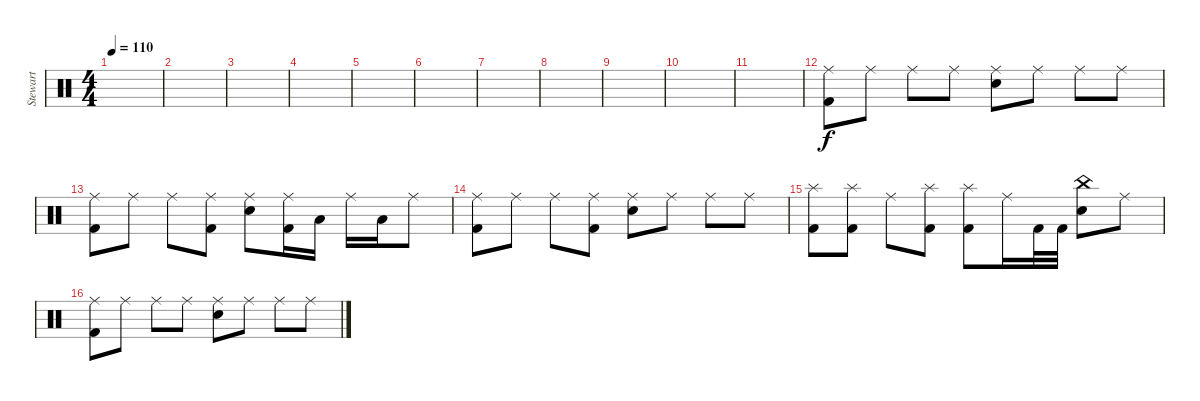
\track ("Stewart" "Stewart") {instrument percussion}
\staff {score}
\articulation defaults
\ts (4 4)
\tempo 110
\clef neutral
\ks c
|
|
|
|
|
|
|
|
|
|
|
("Ride (middle)" "Kick (hit) 2").8 "Ride (middle)".8 "Ride (middle)".8 "Ride (middle)".8 ("Ride (middle)" "Electric Snare (hit)").8 "Ride (middle)".8 "Ride (middle)".8 "Ride (middle)".8 |
("Ride (middle)" "Kick (hit) 2").8 "Ride (middle)".8 "Ride (middle)".8 ("Ride (middle)" "Kick (hit) 2").8 ("Ride (middle)" "Electric Snare (hit)").8 ("Ride (middle)" "Kick (hit) 2").16 "Low Tom (hit)".16 "Ride (middle)".16 "Low Tom (hit)".16 "Ride (middle)".8 |
("Ride (middle)" "Kick (hit) 2").8 "Ride (middle)".8 "Ride (middle)".8 ("Ride (middle)" "Kick (hit) 2").8 ("Ride (middle)" "Electric Snare (hit)").8 "Ride (middle)".8 "Ride (middle)".8 "Ride (middle)".8 |
("Splash (hit)" "Kick (hit) 2").8 ("Splash (hit)" "Kick (hit) 2").8 "Ride (middle)".8 ("Splash (hit)" "Kick (hit) 2").8 ("Splash (hit)" "Kick (hit) 2").8 "Ride (middle)".16 "Kick (hit) 2".32 "Kick (hit) 2".32 ("China (hit)" "Electric Snare (hit)").8 "Ride (middle)".8 |
("Ride (middle)" "Kick (hit) 2").8 "Ride (middle)".8 "Ride (middle)".8 "Ride (middle)".8 ("Ride (middle)" "Electric Snare (hit)").8 "Ride (middle)".8 "Ride (middle)".8 "Ride (middle)".8
